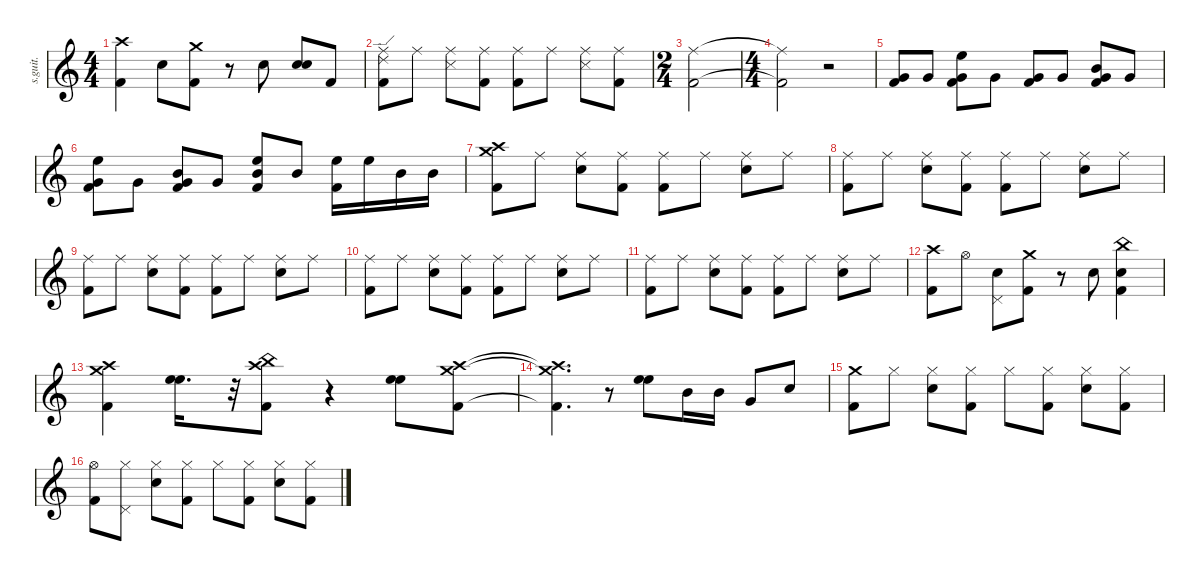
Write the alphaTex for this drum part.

\defaultSystemsLayout 4
\hideDynamics
\bracketExtendMode nobrackets
\track ("Jim Gordon (Drums)" "s.guit.") {instrument percussion}
\staff {score}
\articulation defaults
\ts (4 4)
\tempo (107 hide)
\clef g2
\ks c
("Crash high (hit)" "Kick (hit) 2").4{dy mp} "Snare (hit) 2".8 ("Kick (hit) 2" "Crash medium (hit)").8 r.8 "Snare (hit) 2".8 ("Snare (hit) 2" "Snare (hit) 2").8 "Kick (hit) 2".8 |
("Ride (middle)" "Ride (edge) 2" "Kick (hit) 2").8 "Ride (middle)".8 ("Snare (side stick) 3" "Ride (middle)").8 ("Kick (hit) 2" "Ride (middle)").8 ("Ride (middle)" "Kick (hit) 2").8 "Ride (middle)".8 ("Ride (middle)" "Snare (side stick) 3").8 ("Kick (hit) 2" "Ride (middle)").8 |
\ts (2 4)
\beaming (8 2 2 2 2)
("Kick (hit) 2" "Ride (middle)").2 |
\ts (4 4)
\beaming (8 2 2 2 2)
("Kick (hit) 2"{t} "Ride (middle)"{t}).2 r.2 |
("Very Low Tom (hit)" "Kick (hit) 2").8 "Very Low Tom (hit)".8 ("High Floor Tom (hit)" "Very Low Tom (hit)" "Kick (hit) 2").8 "Very Low Tom (hit)".8 ("Very Low Tom (hit)" "Kick (hit) 2").8 "Very Low Tom (hit)".8 ("Mid Tom (hit)" "Very Low Tom (hit)" "Kick (hit) 2").8 "Very Low Tom (hit)".8 |
("Very Low Tom (hit)" "High Floor Tom (hit)" "Kick (hit) 2").8 "Very Low Tom (hit)".8 ("Very Low Tom (hit)" "Mid Tom (hit)" "Kick (hit) 2").8 "Very Low Tom (hit)".8 ("Mid Tom (hit)" "High Floor Tom (hit)" "Kick (hit) 2").8 "Mid Tom (hit)".8 ("High Floor Tom (hit)" "Kick (hit) 2").16 "High Floor Tom (hit)".16 "Mid Tom (hit)".16 "Mid Tom (hit)".16 |
("Crash high (hit)" "Crash medium (hit)" "Kick (hit) 2").8 "Ride (middle)".8 ("Snare (hit) 2" "Ride (middle)").8 ("Kick (hit) 2" "Ride (middle)").8 ("Ride (middle)" "Kick (hit) 2").8 "Ride (middle)".8 ("Snare (hit) 2" "Ride (middle)").8 "Ride (middle)".8 |
("Ride (middle)" "Kick (hit) 2").8 "Ride (middle)".8 ("Snare (hit) 2" "Ride (middle)").8 ("Kick (hit) 2" "Ride (middle)").8 ("Ride (middle)" "Kick (hit) 2").8 "Ride (middle)".8 ("Ride (middle)" "Snare (hit) 2").8 "Ride (middle)".8 |
("Ride (middle)" "Kick (hit) 2").8 "Ride (middle)".8 ("Snare (hit) 2" "Ride (middle)").8 ("Kick (hit) 2" "Ride (middle)").8 ("Ride (middle)" "Kick (hit) 2").8 "Ride (middle)".8 ("Snare (hit) 2" "Ride (middle)").8 "Ride (middle)".8 |
("Ride (middle)" "Kick (hit) 2").8 "Ride (middle)".8 ("Snare (hit) 2" "Ride (middle)").8 ("Kick (hit) 2" "Ride (middle)").8 ("Ride (middle)" "Kick (hit) 2").8 "Ride (middle)".8 ("Snare (hit) 2" "Ride (middle)").8 "Ride (middle)".8 |
("Ride (middle)" "Kick (hit) 2").8 "Ride (middle)".8 ("Snare (hit) 2" "Ride (middle)").8 ("Kick (hit) 2" "Ride (middle)").8 ("Ride (middle)" "Kick (hit) 2").8 "Ride (middle)".8 ("Ride (middle)" "Snare (hit) 2").8 "Ride (middle)".8 |
("Crash high (hit)" "Kick (hit) 2").8 "Hi-Hat (open)".8 ("Pedal Hi-Hat (hit)" "Snare (hit) 2").8 ("Kick (hit) 2" "Crash medium (hit)").8 r.8 "Snare (hit) 2".8 ("Snare (hit) 2" "China (hit)" "Kick (hit) 2").4 |
("Crash high (hit)" "Crash medium (hit)" "Kick (hit) 2").4 ("High Floor Tom (hit)" "High Floor Tom (hit)").16{d} r.32 ("Kick (hit) 2" "Crash high (hit)" "China (hit)").8 r.4 ("High Floor Tom (hit)" "High Floor Tom (hit)").8 ("Kick (hit) 2" "Crash high (hit)" "Crash medium (hit)").8 |
("Kick (hit) 2"{t} "Crash high (hit)"{t} "Crash medium (hit)"{t}).4{d} r.8 ("High Floor Tom (hit)" "High Floor Tom (hit)").8 "Mid Tom (hit)".16 "Mid Tom (hit)".16 "Very Low Tom (hit)".8 "Snare (hit) 2".8 |
("Crash medium (hit)" "Kick (hit) 2").8 "Hi-Hat (closed)".8 ("Snare (hit) 2" "Hi-Hat (closed)").8 ("Kick (hit) 2" "Hi-Hat (closed)").8 "Hi-Hat (closed)".8 ("Hi-Hat (closed)" "Kick (hit) 2").8 ("Snare (hit) 2" "Hi-Hat (closed)").8 ("Kick (hit) 2" "Hi-Hat (closed)").8 |
("Kick (hit) 2" "Hi-Hat (open)").8 ("Hi-Hat (closed)" "Pedal Hi-Hat (hit)").8 ("Hi-Hat (closed)" "Snare (hit) 2").8 ("Kick (hit) 2" "Hi-Hat (closed)").8 "Hi-Hat (closed)".8 ("Hi-Hat (closed)" "Kick (hit) 2").8 ("Snare (hit) 2" "Hi-Hat (closed)").8 ("Kick (hit) 2" "Hi-Hat (closed)").8
